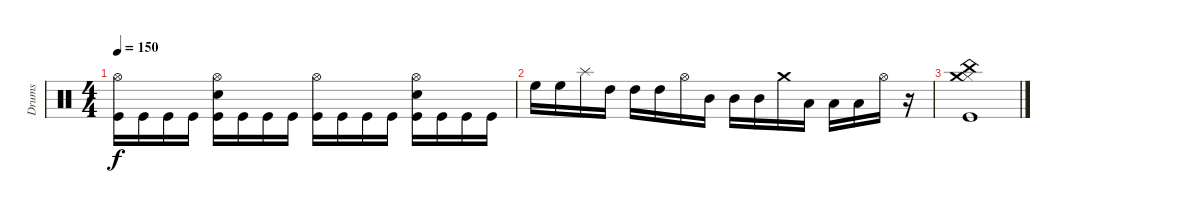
\track ("Drums" "Drums") {instrument percussion}
\staff {score}
\articulation defaults
\ts (4 4)
\tempo 150
\clef neutral
\ks c
("Hi-Hat (open)" "Kick (hit)").16{dy f} "Kick (hit)".16 "Kick (hit)".16 "Kick (hit)".16 ("Hi-Hat (open)" "Electric Snare (hit)" "Kick (hit)").16 "Kick (hit)".16 "Kick (hit)".16 "Kick (hit)".16 ("Hi-Hat (open)" "Kick (hit)").16 "Kick (hit)".16 "Kick (hit)".16 "Kick (hit)".16 ("Hi-Hat (open)" "Electric Snare (hit)" "Kick (hit)").16 "Kick (hit)".16 "Kick (hit)".16 "Kick (hit)".16 |
"High Floor Tom (hit)".16 "High Floor Tom (hit)".16 "Splash (hit)".16 "High Tom (hit)".16 "High Tom (hit)".16 "High Tom (hit)".16 "Hi-Hat (open)".16 "Mid Tom (hit)".16 "Mid Tom (hit)".16 "Mid Tom (hit)".16 "Crash medium (hit)".16 "Low Tom (hit)".16 "Low Tom (hit)".16 "Low Tom (hit)".16 "Hi-Hat (open)".16 r.16 |
("Hi-Hat (closed)" "Crash medium (hit)" "China (hit)" "Kick (hit)").1
